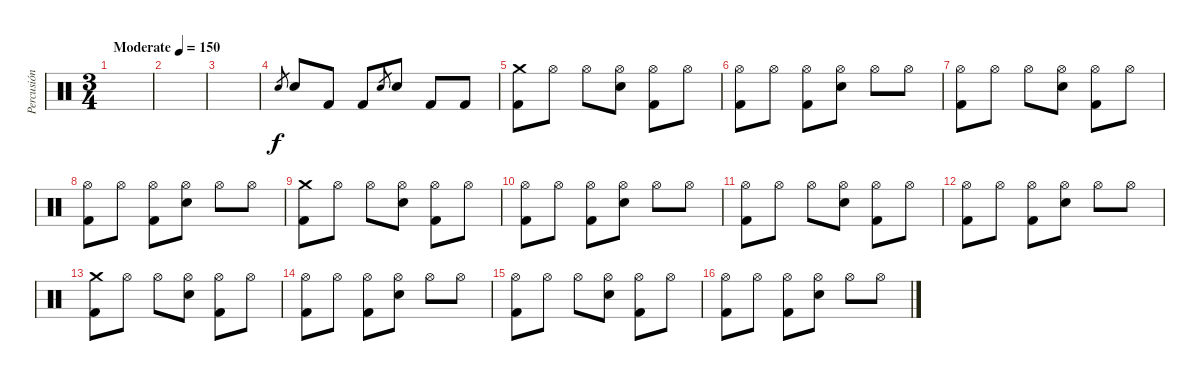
\track ("Percusión" "Percusión") {instrument percussion}
\staff {score}
\articulation defaults
\ts (3 4)
\tempo (150 "Moderate")
\clef neutral
\ks c
|
|
|
"Snare (hit) 2".8{gr} "Snare (hit) 2".8 "Kick (hit) 2".8 "Kick (hit) 2".8 "Snare (hit) 2".8{gr} "Snare (hit) 2".8 "Kick (hit) 2".8 "Kick (hit) 2".8 |
("Crash medium (hit)" "Kick (hit) 2").8 "Hi-Hat (open)".8 "Hi-Hat (open)".8 ("Hi-Hat (open)" "Snare (hit) 2").8 ("Hi-Hat (open)" "Kick (hit) 2").8 "Hi-Hat (open)".8 |
("Hi-Hat (open)" "Kick (hit) 2").8 "Hi-Hat (open)".8 ("Hi-Hat (open)" "Kick (hit) 2").8 ("Hi-Hat (open)" "Snare (hit) 2").8 "Hi-Hat (open)".8 "Hi-Hat (open)".8 |
("Hi-Hat (open)" "Kick (hit) 2").8 "Hi-Hat (open)".8 "Hi-Hat (open)".8 ("Hi-Hat (open)" "Snare (hit) 2").8 ("Hi-Hat (open)" "Kick (hit) 2").8 "Hi-Hat (open)".8 |
("Hi-Hat (open)" "Kick (hit) 2").8 "Hi-Hat (open)".8 ("Hi-Hat (open)" "Kick (hit) 2").8 ("Hi-Hat (open)" "Snare (hit) 2").8 "Hi-Hat (open)".8 "Hi-Hat (open)".8 |
("Crash medium (hit)" "Kick (hit) 2").8 "Hi-Hat (open)".8 "Hi-Hat (open)".8 ("Hi-Hat (open)" "Snare (hit) 2").8 ("Hi-Hat (open)" "Kick (hit) 2").8 "Hi-Hat (open)".8 |
("Hi-Hat (open)" "Kick (hit) 2").8 "Hi-Hat (open)".8 ("Hi-Hat (open)" "Kick (hit) 2").8 ("Hi-Hat (open)" "Snare (hit) 2").8 "Hi-Hat (open)".8 "Hi-Hat (open)".8 |
("Hi-Hat (open)" "Kick (hit) 2").8 "Hi-Hat (open)".8 "Hi-Hat (open)".8 ("Hi-Hat (open)" "Snare (hit) 2").8 ("Hi-Hat (open)" "Kick (hit) 2").8 "Hi-Hat (open)".8 |
("Hi-Hat (open)" "Kick (hit) 2").8 "Hi-Hat (open)".8 ("Hi-Hat (open)" "Kick (hit) 2").8 ("Hi-Hat (open)" "Snare (hit) 2").8 "Hi-Hat (open)".8 "Hi-Hat (open)".8 |
("Crash medium (hit)" "Kick (hit) 2").8 "Hi-Hat (open)".8 "Hi-Hat (open)".8 ("Hi-Hat (open)" "Snare (hit) 2").8 ("Hi-Hat (open)" "Kick (hit) 2").8 "Hi-Hat (open)".8 |
("Hi-Hat (open)" "Kick (hit) 2").8 "Hi-Hat (open)".8 ("Hi-Hat (open)" "Kick (hit) 2").8 ("Hi-Hat (open)" "Snare (hit) 2").8 "Hi-Hat (open)".8 "Hi-Hat (open)".8 |
("Hi-Hat (open)" "Kick (hit) 2").8 "Hi-Hat (open)".8 "Hi-Hat (open)".8 ("Hi-Hat (open)" "Snare (hit) 2").8 ("Hi-Hat (open)" "Kick (hit) 2").8 "Hi-Hat (open)".8 |
("Hi-Hat (open)" "Kick (hit) 2").8 "Hi-Hat (open)".8 ("Hi-Hat (open)" "Kick (hit) 2").8 ("Hi-Hat (open)" "Snare (hit) 2").8 "Hi-Hat (open)".8 "Hi-Hat (open)".8
